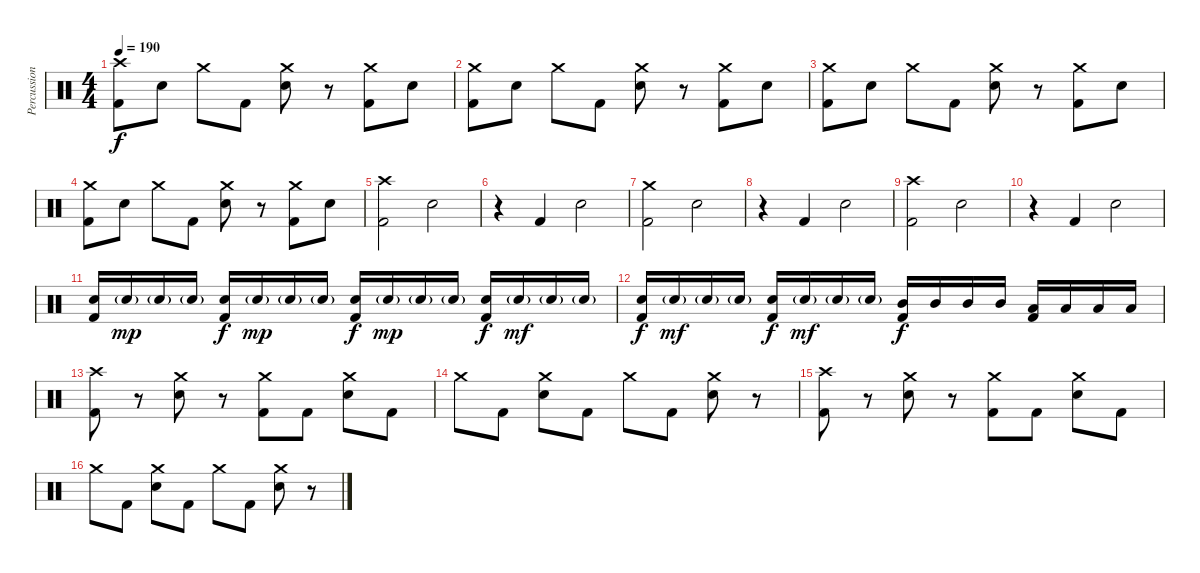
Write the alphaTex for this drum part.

\track ("Percussion" "Percussion") {instrument percussion}
\staff {score}
\articulation defaults
\ts (4 4)
\tempo 190
\clef neutral
\ks c
("Crash high (hit)" "Kick (hit) 2").8{dy f} "Electric Snare (hit)".8 "Crash medium (hit)".8 "Kick (hit) 2".8 ("Crash medium (hit)" "Electric Snare (hit)").8 r.8 ("Crash medium (hit)" "Kick (hit) 2").8 "Electric Snare (hit)".8 |
("Crash medium (hit)" "Kick (hit) 2").8 "Electric Snare (hit)".8 "Crash medium (hit)".8 "Kick (hit) 2".8 ("Crash medium (hit)" "Electric Snare (hit)").8 r.8 ("Crash medium (hit)" "Kick (hit) 2").8 "Electric Snare (hit)".8 |
("Crash medium (hit)" "Kick (hit) 2").8 "Electric Snare (hit)".8 "Crash medium (hit)".8 "Kick (hit) 2".8 ("Crash medium (hit)" "Electric Snare (hit)").8 r.8 ("Crash medium (hit)" "Kick (hit) 2").8 "Electric Snare (hit)".8 |
("Crash medium (hit)" "Kick (hit) 2").8 "Electric Snare (hit)".8 "Crash medium (hit)".8 "Kick (hit) 2".8 ("Crash medium (hit)" "Electric Snare (hit)").8 r.8 ("Crash medium (hit)" "Kick (hit) 2").8 "Electric Snare (hit)".8 |
("Crash high (hit)" "Kick (hit) 2").2 "Electric Snare (hit)".2 |
r.4 "Kick (hit) 2".4 "Electric Snare (hit)".2 |
("Crash medium (hit)" "Kick (hit) 2").2 "Electric Snare (hit)".2 |
r.4 "Kick (hit) 2".4 "Electric Snare (hit)".2 |
("Crash high (hit)" "Kick (hit) 2").2 "Electric Snare (hit)".2 |
r.4 "Kick (hit) 2".4 "Electric Snare (hit)".2 |
("Electric Snare (hit)" "Kick (hit) 2").16 "Electric Snare (hit)"{g}.16{dy mp} "Electric Snare (hit)"{g}.16 "Electric Snare (hit)"{g}.16 ("Electric Snare (hit)" "Kick (hit) 2").16{dy f} "Electric Snare (hit)"{g}.16{dy mp} "Electric Snare (hit)"{g}.16 "Electric Snare (hit)"{g}.16 ("Electric Snare (hit)" "Kick (hit) 2").16{dy f} "Electric Snare (hit)"{g}.16{dy mp} "Electric Snare (hit)"{g}.16 "Electric Snare (hit)"{g}.16 ("Electric Snare (hit)" "Kick (hit) 2").16{dy f} "Electric Snare (hit)"{g}.16{dy mf} "Electric Snare (hit)"{g}.16 "Electric Snare (hit)"{g}.16 |
("Electric Snare (hit)" "Kick (hit) 2").16{dy f} "Electric Snare (hit)"{g}.16{dy mf} "Electric Snare (hit)"{g}.16 "Electric Snare (hit)"{g}.16 ("Electric Snare (hit)" "Kick (hit) 2").16{dy f} "Electric Snare (hit)"{g}.16{dy mf} "Electric Snare (hit)"{g}.16 "Electric Snare (hit)"{g}.16 ("Mid Tom (hit)" "Kick (hit) 2").16{dy f} "Mid Tom (hit)".16 "Mid Tom (hit)".16 "Mid Tom (hit)".16 ("Low Tom (hit)" "Kick (hit) 2").16 "Low Tom (hit)".16 "Low Tom (hit)".16 "Low Tom (hit)".16 |
("Crash high (hit)" "Kick (hit) 2").8 r.8 ("Crash medium (hit)" "Electric Snare (hit)").8 r.8 ("Crash medium (hit)" "Kick (hit) 2").8 "Kick (hit) 2".8 ("Crash medium (hit)" "Electric Snare (hit)").8 "Kick (hit) 2".8 |
"Crash medium (hit)".8 "Kick (hit) 2".8 ("Crash medium (hit)" "Electric Snare (hit)").8 "Kick (hit) 2".8 "Crash medium (hit)".8 "Kick (hit) 2".8 ("Crash medium (hit)" "Electric Snare (hit)").8 r.8 |
("Crash high (hit)" "Kick (hit) 2").8 r.8 ("Crash medium (hit)" "Electric Snare (hit)").8 r.8 ("Crash medium (hit)" "Kick (hit) 2").8 "Kick (hit) 2".8 ("Crash medium (hit)" "Electric Snare (hit)").8 "Kick (hit) 2".8 |
"Crash medium (hit)".8 "Kick (hit) 2".8 ("Crash medium (hit)" "Electric Snare (hit)").8 "Kick (hit) 2".8 "Crash medium (hit)".8 "Kick (hit) 2".8 ("Crash medium (hit)" "Electric Snare (hit)").8 r.8
